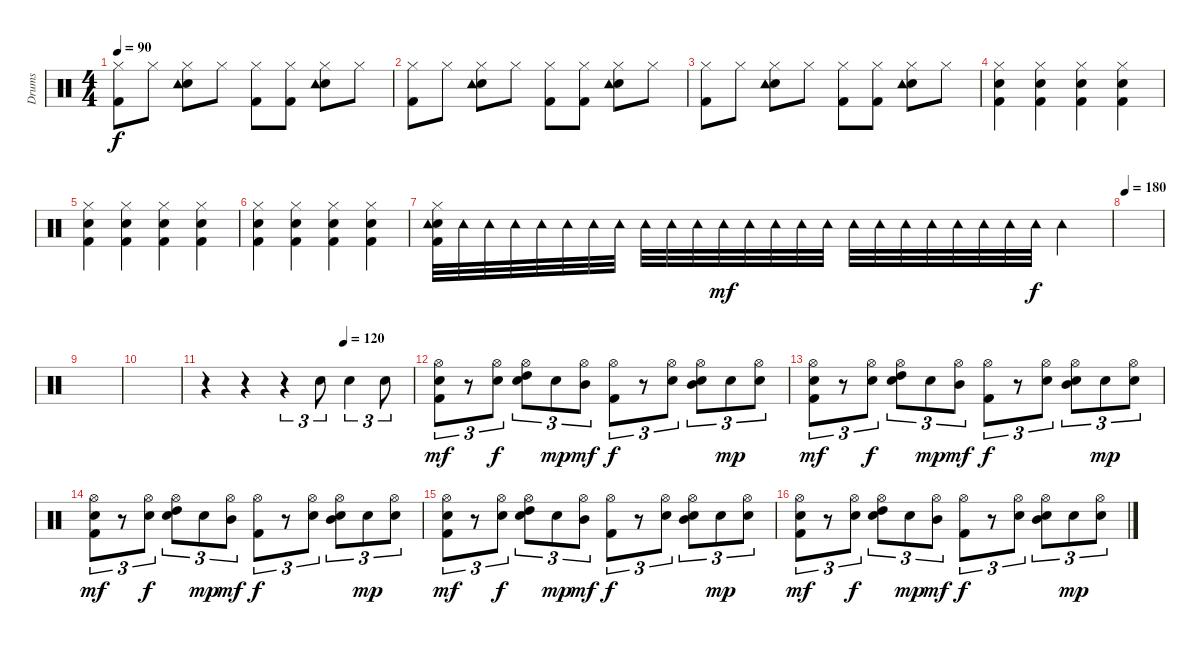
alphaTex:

\track ("Drums" "Drums") {instrument percussion}
\staff {score}
\articulation defaults
\ts (4 4)
\tempo 90
\clef neutral
\ks c
("Hi-Hat (closed)" "Kick (hit) 2").8{dy f} "Hi-Hat (closed)".8 ("Hi-Hat (closed)" "Snare (hit) 2" "Tambourine (hit)").8 "Hi-Hat (closed)".8 ("Hi-Hat (closed)" "Kick (hit) 2").8 ("Hi-Hat (closed)" "Kick (hit) 2").8 ("Hi-Hat (closed)" "Snare (hit) 2" "Tambourine (hit)").8 "Hi-Hat (closed)".8 |
("Hi-Hat (closed)" "Kick (hit) 2").8 "Hi-Hat (closed)".8 ("Hi-Hat (closed)" "Snare (hit) 2" "Tambourine (hit)").8 "Hi-Hat (closed)".8 ("Hi-Hat (closed)" "Kick (hit) 2").8 ("Hi-Hat (closed)" "Kick (hit) 2").8 ("Hi-Hat (closed)" "Snare (hit) 2" "Tambourine (hit)").8 "Hi-Hat (closed)".8 |
("Hi-Hat (closed)" "Kick (hit) 2").8 "Hi-Hat (closed)".8 ("Hi-Hat (closed)" "Snare (hit) 2" "Tambourine (hit)").8 "Hi-Hat (closed)".8 ("Hi-Hat (closed)" "Kick (hit) 2").8 ("Hi-Hat (closed)" "Kick (hit) 2").8 ("Hi-Hat (closed)" "Snare (hit) 2" "Tambourine (hit)").8 "Hi-Hat (closed)".8 |
("Hi-Hat (closed)" "Snare (hit) 2" "Kick (hit) 2").4 ("Hi-Hat (closed)" "Snare (hit) 2" "Kick (hit) 2").4 ("Hi-Hat (closed)" "Snare (hit) 2" "Kick (hit) 2").4 ("Hi-Hat (closed)" "Snare (hit) 2" "Kick (hit) 2").4 |
("Hi-Hat (closed)" "Snare (hit) 2" "Kick (hit) 2").4 ("Hi-Hat (closed)" "Snare (hit) 2" "Kick (hit) 2").4 ("Hi-Hat (closed)" "Snare (hit) 2" "Kick (hit) 2").4 ("Hi-Hat (closed)" "Snare (hit) 2" "Kick (hit) 2").4 |
("Hi-Hat (closed)" "Snare (hit) 2" "Kick (hit) 2").4 ("Hi-Hat (closed)" "Snare (hit) 2" "Kick (hit) 2").4 ("Hi-Hat (closed)" "Snare (hit) 2" "Kick (hit) 2").4 ("Hi-Hat (closed)" "Snare (hit) 2" "Kick (hit) 2").4 |
("Hi-Hat (closed)" "Snare (hit) 2" "Kick (hit) 2" "Tambourine (hit)").32 "Tambourine (hit)".32 "Tambourine (hit)".32 "Tambourine (hit)".32 "Tambourine (hit)".32 "Tambourine (hit)".32 "Tambourine (hit)".32 "Tambourine (hit)".32 "Tambourine (hit)".32 "Tambourine (hit)".32 "Tambourine (hit)".32 "Tambourine (hit)".32{dy mf} "Tambourine (hit)".32 "Tambourine (hit)".32 "Tambourine (hit)".32 "Tambourine (hit)".32 "Tambourine (hit)".32 "Tambourine (hit)".32 "Tambourine (hit)".32 "Tambourine (hit)".32 "Tambourine (hit)".32 "Tambourine (hit)".32 "Tambourine (hit)".32 "Tambourine (hit)".32{dy f} "Tambourine (hit)".4 |
\tempo 180
|
|
|
\tempo (120 0.6666666666666666)
r.4 r.4 r.4{tu (3 2)} "Snare (hit) 2".8{tu (3 2)} "Snare (hit) 2".4{tu (3 2)} "Snare (hit) 2".8{tu (3 2)} |
("Hi-Hat (open)" "Snare (hit) 2" "Kick (hit) 2").8{tu (3 2) dy mf} r.8{tu (3 2)} ("Hi-Hat (open)" "Snare (hit) 2").8{tu (3 2) dy f} ("Hi-Hat (open)" "High Tom (hit)" "Snare (hit) 2").8{tu (3 2)} "Snare (hit) 2".8{tu (3 2) dy mp} ("Hi-Hat (open)" "Mid Tom (hit)").8{tu (3 2) dy mf} ("Hi-Hat (open)" "Kick (hit) 2").8{tu (3 2) dy f} r.8{tu (3 2)} ("Hi-Hat (open)" "Snare (hit) 2").8{tu (3 2)} ("Hi-Hat (open)" "Mid Tom (hit)" "Snare (hit) 2").8{tu (3 2)} "Snare (hit) 2".8{tu (3 2) dy mp} ("Hi-Hat (open)" "Snare (hit) 2").8{tu (3 2)} |
("Hi-Hat (open)" "Snare (hit) 2" "Kick (hit) 2").8{tu (3 2) dy mf} r.8{tu (3 2)} ("Hi-Hat (open)" "Snare (hit) 2").8{tu (3 2) dy f} ("Hi-Hat (open)" "High Tom (hit)" "Snare (hit) 2").8{tu (3 2)} "Snare (hit) 2".8{tu (3 2) dy mp} ("Hi-Hat (open)" "Mid Tom (hit)").8{tu (3 2) dy mf} ("Hi-Hat (open)" "Kick (hit) 2").8{tu (3 2) dy f} r.8{tu (3 2)} ("Hi-Hat (open)" "Snare (hit) 2").8{tu (3 2)} ("Hi-Hat (open)" "Mid Tom (hit)" "Snare (hit) 2").8{tu (3 2)} "Snare (hit) 2".8{tu (3 2) dy mp} ("Hi-Hat (open)" "Snare (hit) 2").8{tu (3 2)} |
("Hi-Hat (open)" "Snare (hit) 2" "Kick (hit) 2").8{tu (3 2) dy mf} r.8{tu (3 2)} ("Hi-Hat (open)" "Snare (hit) 2").8{tu (3 2) dy f} ("Hi-Hat (open)" "High Tom (hit)" "Snare (hit) 2").8{tu (3 2)} "Snare (hit) 2".8{tu (3 2) dy mp} ("Hi-Hat (open)" "Mid Tom (hit)").8{tu (3 2) dy mf} ("Hi-Hat (open)" "Kick (hit) 2").8{tu (3 2) dy f} r.8{tu (3 2)} ("Hi-Hat (open)" "Snare (hit) 2").8{tu (3 2)} ("Hi-Hat (open)" "Mid Tom (hit)" "Snare (hit) 2").8{tu (3 2)} "Snare (hit) 2".8{tu (3 2) dy mp} ("Hi-Hat (open)" "Snare (hit) 2").8{tu (3 2)} |
("Hi-Hat (open)" "Snare (hit) 2" "Kick (hit) 2").8{tu (3 2) dy mf} r.8{tu (3 2)} ("Hi-Hat (open)" "Snare (hit) 2").8{tu (3 2) dy f} ("Hi-Hat (open)" "High Tom (hit)" "Snare (hit) 2").8{tu (3 2)} "Snare (hit) 2".8{tu (3 2) dy mp} ("Hi-Hat (open)" "Mid Tom (hit)").8{tu (3 2) dy mf} ("Hi-Hat (open)" "Kick (hit) 2").8{tu (3 2) dy f} r.8{tu (3 2)} ("Hi-Hat (open)" "Snare (hit) 2").8{tu (3 2)} ("Hi-Hat (open)" "Mid Tom (hit)" "Snare (hit) 2").8{tu (3 2)} "Snare (hit) 2".8{tu (3 2) dy mp} ("Hi-Hat (open)" "Snare (hit) 2").8{tu (3 2)} |
("Hi-Hat (open)" "Snare (hit) 2" "Kick (hit) 2").8{tu (3 2) dy mf} r.8{tu (3 2)} ("Hi-Hat (open)" "Snare (hit) 2").8{tu (3 2) dy f} ("Hi-Hat (open)" "High Tom (hit)" "Snare (hit) 2").8{tu (3 2)} "Snare (hit) 2".8{tu (3 2) dy mp} ("Hi-Hat (open)" "Mid Tom (hit)").8{tu (3 2) dy mf} ("Hi-Hat (open)" "Kick (hit) 2").8{tu (3 2) dy f} r.8{tu (3 2)} ("Hi-Hat (open)" "Snare (hit) 2").8{tu (3 2)} ("Hi-Hat (open)" "Mid Tom (hit)" "Snare (hit) 2").8{tu (3 2)} "Snare (hit) 2".8{tu (3 2) dy mp} ("Hi-Hat (open)" "Snare (hit) 2").8{tu (3 2)}
